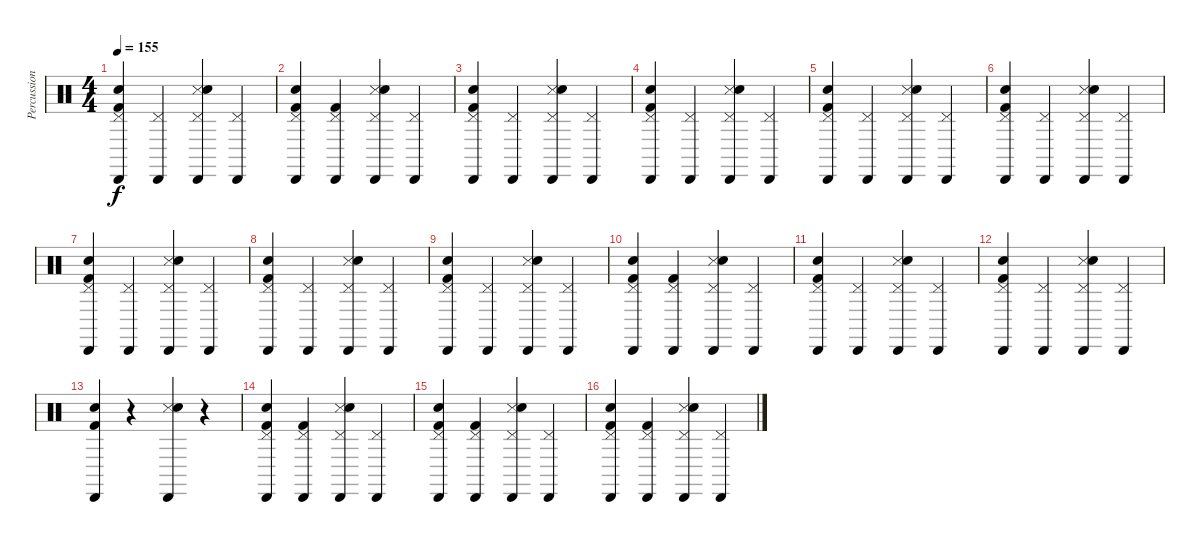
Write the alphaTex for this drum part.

\track ("Percussion" "Percussion") {instrument percussion}
\staff {score}
\articulation defaults
\ts (4 4)
\tempo 155
\clef neutral
\ks c
("Electric Snare (hit)" "Cabasa (hit)" "Pedal Hi-Hat (hit)" "Kick (hit) 2").4{dy f} ("Cabasa (hit)" "Pedal Hi-Hat (hit)").4 ("Snare (side stick) 3" "Snare (hit) 2" "Cabasa (hit)" "Pedal Hi-Hat (hit)").4 ("Cabasa (hit)" "Pedal Hi-Hat (hit)").4 |
("Electric Snare (hit)" "Cabasa (hit)" "Pedal Hi-Hat (hit)" "Kick (hit) 2").4 ("Cabasa (hit)" "Pedal Hi-Hat (hit)" "Kick (hit) 2").4 ("Snare (side stick) 3" "Snare (hit) 2" "Cabasa (hit)" "Pedal Hi-Hat (hit)").4 ("Cabasa (hit)" "Pedal Hi-Hat (hit)").4 |
("Electric Snare (hit)" "Cabasa (hit)" "Pedal Hi-Hat (hit)" "Kick (hit) 2").4 ("Cabasa (hit)" "Pedal Hi-Hat (hit)").4 ("Snare (side stick) 3" "Snare (hit) 2" "Cabasa (hit)" "Pedal Hi-Hat (hit)").4 ("Cabasa (hit)" "Pedal Hi-Hat (hit)").4 |
("Electric Snare (hit)" "Cabasa (hit)" "Pedal Hi-Hat (hit)" "Kick (hit) 2").4 ("Cabasa (hit)" "Pedal Hi-Hat (hit)").4 ("Snare (side stick) 3" "Snare (hit) 2" "Cabasa (hit)" "Pedal Hi-Hat (hit)").4 ("Cabasa (hit)" "Pedal Hi-Hat (hit)").4 |
("Electric Snare (hit)" "Cabasa (hit)" "Pedal Hi-Hat (hit)" "Kick (hit) 2").4 ("Cabasa (hit)" "Pedal Hi-Hat (hit)").4 ("Snare (side stick) 3" "Snare (hit) 2" "Cabasa (hit)" "Pedal Hi-Hat (hit)").4 ("Cabasa (hit)" "Pedal Hi-Hat (hit)").4 |
("Electric Snare (hit)" "Cabasa (hit)" "Pedal Hi-Hat (hit)" "Kick (hit) 2").4 ("Cabasa (hit)" "Pedal Hi-Hat (hit)").4 ("Snare (side stick) 3" "Snare (hit) 2" "Cabasa (hit)" "Pedal Hi-Hat (hit)").4 ("Cabasa (hit)" "Pedal Hi-Hat (hit)").4 |
("Electric Snare (hit)" "Cabasa (hit)" "Pedal Hi-Hat (hit)" "Kick (hit) 2").4 ("Cabasa (hit)" "Pedal Hi-Hat (hit)").4 ("Snare (side stick) 3" "Snare (hit) 2" "Cabasa (hit)" "Pedal Hi-Hat (hit)").4 ("Cabasa (hit)" "Pedal Hi-Hat (hit)").4 |
("Electric Snare (hit)" "Cabasa (hit)" "Pedal Hi-Hat (hit)" "Kick (hit) 2").4 ("Cabasa (hit)" "Pedal Hi-Hat (hit)").4 ("Snare (side stick) 3" "Snare (hit) 2" "Cabasa (hit)" "Pedal Hi-Hat (hit)").4 ("Cabasa (hit)" "Pedal Hi-Hat (hit)").4 |
("Electric Snare (hit)" "Cabasa (hit)" "Pedal Hi-Hat (hit)" "Kick (hit) 2").4 ("Cabasa (hit)" "Pedal Hi-Hat (hit)").4 ("Snare (side stick) 3" "Snare (hit) 2" "Cabasa (hit)" "Pedal Hi-Hat (hit)").4 ("Cabasa (hit)" "Pedal Hi-Hat (hit)").4 |
("Electric Snare (hit)" "Cabasa (hit)" "Pedal Hi-Hat (hit)" "Kick (hit) 2").4 ("Cabasa (hit)" "Pedal Hi-Hat (hit)" "Kick (hit) 2").4 ("Snare (side stick) 3" "Snare (hit) 2" "Cabasa (hit)" "Pedal Hi-Hat (hit)").4 ("Cabasa (hit)" "Pedal Hi-Hat (hit)").4 |
("Electric Snare (hit)" "Cabasa (hit)" "Pedal Hi-Hat (hit)" "Kick (hit) 2").4 ("Cabasa (hit)" "Pedal Hi-Hat (hit)").4 ("Snare (side stick) 3" "Snare (hit) 2" "Cabasa (hit)" "Pedal Hi-Hat (hit)").4 ("Cabasa (hit)" "Pedal Hi-Hat (hit)").4 |
("Electric Snare (hit)" "Cabasa (hit)" "Pedal Hi-Hat (hit)" "Kick (hit) 2").4 ("Cabasa (hit)" "Pedal Hi-Hat (hit)").4 ("Snare (side stick) 3" "Snare (hit) 2" "Cabasa (hit)" "Pedal Hi-Hat (hit)").4 ("Cabasa (hit)" "Pedal Hi-Hat (hit)").4 |
("Electric Snare (hit)" "Cabasa (hit)" "Kick (hit) 2").4 r.4 ("Snare (side stick) 3" "Snare (hit) 2" "Cabasa (hit)").4 r.4 |
("Electric Snare (hit)" "Cabasa (hit)" "Pedal Hi-Hat (hit)" "Kick (hit) 2").4 ("Cabasa (hit)" "Pedal Hi-Hat (hit)" "Kick (hit) 2").4 ("Snare (side stick) 3" "Snare (hit) 2" "Cabasa (hit)" "Pedal Hi-Hat (hit)").4 ("Cabasa (hit)" "Pedal Hi-Hat (hit)").4 |
("Electric Snare (hit)" "Cabasa (hit)" "Pedal Hi-Hat (hit)" "Kick (hit) 2").4 ("Cabasa (hit)" "Pedal Hi-Hat (hit)" "Kick (hit) 2").4 ("Snare (side stick) 3" "Snare (hit) 2" "Cabasa (hit)" "Pedal Hi-Hat (hit)").4 ("Cabasa (hit)" "Pedal Hi-Hat (hit)").4 |
("Electric Snare (hit)" "Cabasa (hit)" "Pedal Hi-Hat (hit)" "Kick (hit) 2").4 ("Cabasa (hit)" "Pedal Hi-Hat (hit)" "Kick (hit) 2").4 ("Snare (side stick) 3" "Snare (hit) 2" "Cabasa (hit)" "Pedal Hi-Hat (hit)").4 ("Cabasa (hit)" "Pedal Hi-Hat (hit)").4
